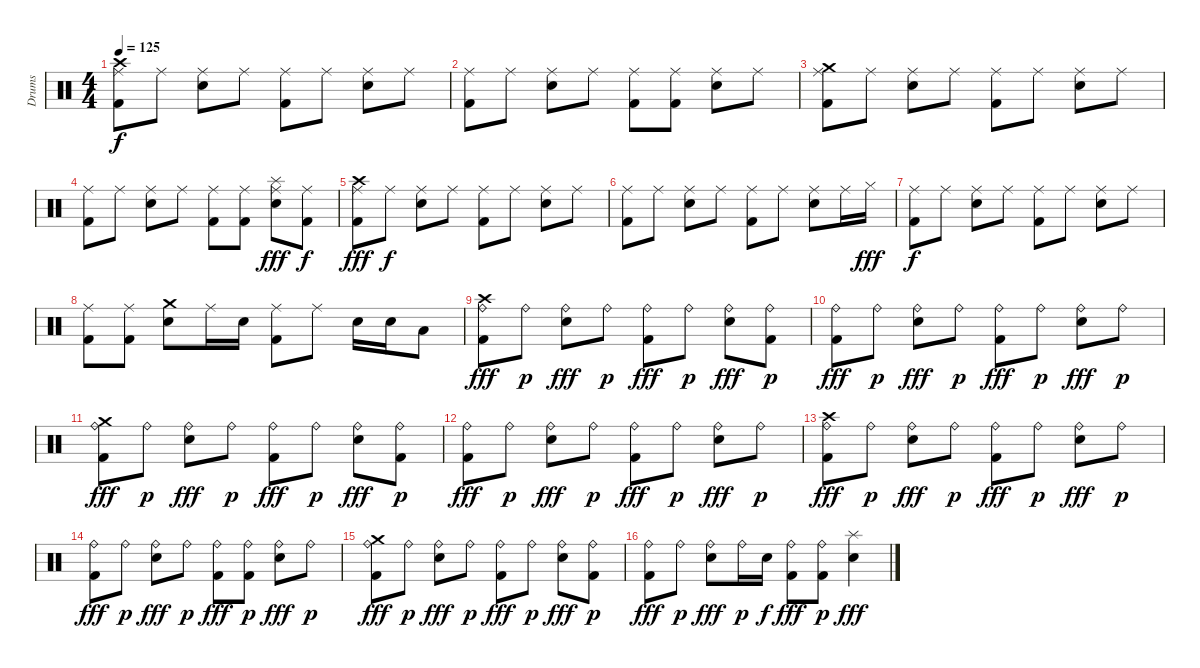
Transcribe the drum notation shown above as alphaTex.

\track ("Drums" "Drums") {instrument percussion}
\staff {score}
\articulation defaults
\ts (4 4)
\tempo 125
\clef neutral
\ks c
("Crash high (hit)" "Ride (middle)" "Kick (hit) 2").8{dy f} "Ride (middle)".8 ("Ride (middle)" "Electric Snare (hit)").8 "Ride (middle)".8 ("Ride (middle)" "Kick (hit) 2").8 "Ride (middle)".8 ("Ride (middle)" "Electric Snare (hit)").8 "Ride (middle)".8 |
("Ride (middle)" "Kick (hit) 2").8 "Ride (middle)".8 ("Ride (middle)" "Electric Snare (hit)").8 "Ride (middle)".8 ("Ride (middle)" "Kick (hit) 2").8 ("Ride (middle)" "Kick (hit) 2").8 ("Ride (middle)" "Electric Snare (hit)").8 "Ride (middle)".8 |
("Crash medium (hit)" "Ride (middle)" "Kick (hit) 2").8 "Ride (middle)".8 ("Ride (middle)" "Electric Snare (hit)").8 "Ride (middle)".8 ("Ride (middle)" "Kick (hit) 2").8 "Ride (middle)".8 ("Ride (middle)" "Electric Snare (hit)").8 "Ride (middle)".8 |
("Ride (middle)" "Kick (hit) 2").8 "Ride (middle)".8 ("Ride (middle)" "Electric Snare (hit)").8 "Ride (middle)".8 ("Ride (middle)" "Kick (hit) 2").8 ("Ride (middle)" "Kick (hit) 2").8 ("Splash (hit)" "Ride (middle)" "Electric Snare (hit)").8{dy fff} ("Ride (middle)" "Kick (hit) 2").8{dy f} |
("Crash high (hit)" "Ride (middle)" "Kick (hit) 2").8{dy fff} "Ride (middle)".8{dy f} ("Ride (middle)" "Electric Snare (hit)").8 "Ride (middle)".8 ("Ride (middle)" "Kick (hit) 2").8 "Ride (middle)".8 ("Ride (middle)" "Electric Snare (hit)").8 "Ride (middle)".8 |
("Ride (middle)" "Kick (hit) 2").8 "Ride (middle)".8 ("Ride (middle)" "Electric Snare (hit)").8 "Ride (middle)".8 ("Ride (middle)" "Kick (hit) 2").8 "Ride (middle)".8 ("Ride (middle)" "Electric Snare (hit)").8 "Ride (middle)".16 "Hi-Hat (closed)".16{dy fff} |
("Ride (middle)" "Kick (hit) 2").8{dy f} "Ride (middle)".8 ("Ride (middle)" "Electric Snare (hit)").8 "Ride (middle)".8 ("Ride (middle)" "Kick (hit) 2").8 "Ride (middle)".8 ("Ride (middle)" "Electric Snare (hit)").8 "Ride (middle)".8 |
("Ride (middle)" "Kick (hit) 2").8 ("Ride (middle)" "Kick (hit) 2").8 ("Crash medium (hit)" "Electric Snare (hit)").8 "Ride (middle)".16 "Electric Snare (hit)".16 ("Ride (middle)" "Kick (hit) 2").8 "Ride (middle)".8 "Electric Snare (hit)".16 "Electric Snare (hit)".16 "Low Tom (hit)".8 |
("Crash high (hit)" "Ride (bell)" "Kick (hit) 2").8{dy fff} "Ride (bell)".8{dy p} ("Ride (bell)" "Electric Snare (hit)").8{dy fff} "Ride (bell)".8{dy p} ("Ride (bell)" "Kick (hit) 2").8{dy fff} "Ride (bell)".8{dy p} ("Ride (bell)" "Electric Snare (hit)").8{dy fff} ("Ride (bell)" "Kick (hit) 2").8{dy p} |
("Ride (bell)" "Kick (hit) 2").8{dy fff} "Ride (bell)".8{dy p} ("Ride (bell)" "Electric Snare (hit)").8{dy fff} "Ride (bell)".8{dy p} ("Ride (bell)" "Kick (hit) 2").8{dy fff} "Ride (bell)".8{dy p} ("Ride (bell)" "Electric Snare (hit)").8{dy fff} "Ride (bell)".8{dy p} |
("Crash medium (hit)" "Ride (bell)" "Kick (hit) 2").8{dy fff} "Ride (bell)".8{dy p} ("Ride (bell)" "Electric Snare (hit)").8{dy fff} "Ride (bell)".8{dy p} ("Ride (bell)" "Kick (hit) 2").8{dy fff} "Ride (bell)".8{dy p} ("Ride (bell)" "Electric Snare (hit)").8{dy fff} ("Ride (bell)" "Kick (hit) 2").8{dy p} |
("Ride (bell)" "Kick (hit) 2").8{dy fff} "Ride (bell)".8{dy p} ("Ride (bell)" "Electric Snare (hit)").8{dy fff} "Ride (bell)".8{dy p} ("Ride (bell)" "Kick (hit) 2").8{dy fff} "Ride (bell)".8{dy p} ("Ride (bell)" "Electric Snare (hit)").8{dy fff} "Ride (bell)".8{dy p} |
("Crash high (hit)" "Ride (bell)" "Kick (hit) 2").8{dy fff} "Ride (bell)".8{dy p} ("Ride (bell)" "Electric Snare (hit)").8{dy fff} "Ride (bell)".8{dy p} ("Ride (bell)" "Kick (hit) 2").8{dy fff} "Ride (bell)".8{dy p} ("Ride (bell)" "Electric Snare (hit)").8{dy fff} "Ride (bell)".8{dy p} |
("Ride (bell)" "Kick (hit) 2").8{dy fff} "Ride (bell)".8{dy p} ("Ride (bell)" "Electric Snare (hit)").8{dy fff} "Ride (bell)".8{dy p} ("Ride (bell)" "Kick (hit) 2").8{dy fff} ("Ride (bell)" "Kick (hit) 2").8{dy p} ("Ride (bell)" "Electric Snare (hit)").8{dy fff} "Ride (bell)".8{dy p} |
("Crash medium (hit)" "Ride (bell)" "Kick (hit) 2").8{dy fff} "Ride (bell)".8{dy p} ("Ride (bell)" "Electric Snare (hit)").8{dy fff} "Ride (bell)".8{dy p} ("Ride (bell)" "Kick (hit) 2").8{dy fff} "Ride (bell)".8{dy p} ("Ride (bell)" "Electric Snare (hit)").8{dy fff} ("Ride (bell)" "Kick (hit) 2").8{dy p} |
("Ride (bell)" "Kick (hit) 2").8{dy fff} "Ride (bell)".8{dy p} ("Ride (bell)" "Electric Snare (hit)").8{dy fff} "Ride (bell)".16{dy p} "Electric Snare (hit)".16{dy f} ("Ride (bell)" "Kick (hit) 2").8{dy fff} ("Ride (bell)" "Kick (hit) 2").8{dy p} ("Splash (hit)" "Electric Snare (hit)").4{dy fff}
